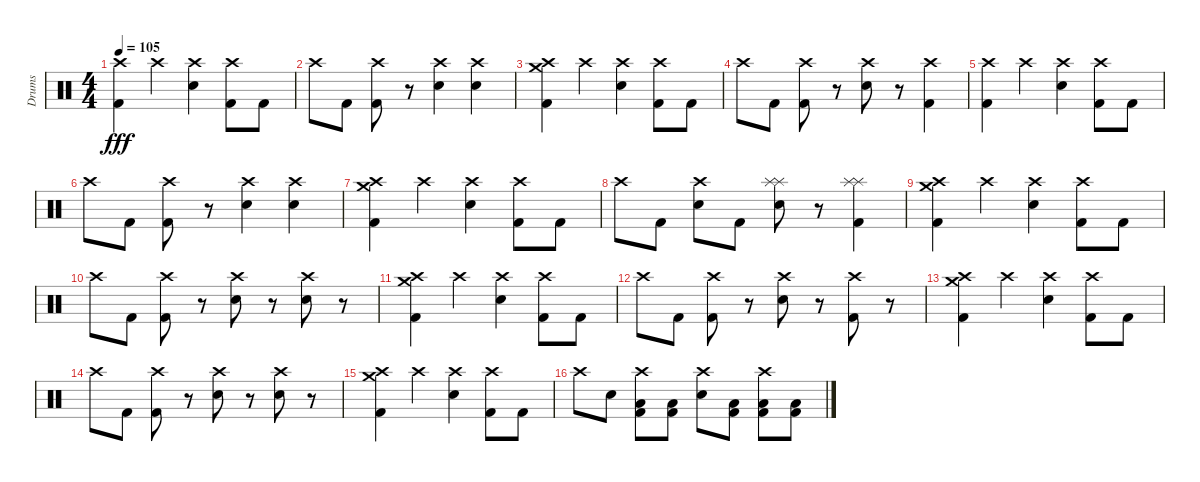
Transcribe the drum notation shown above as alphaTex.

\track ("Drums" "Drums") {instrument percussion}
\staff {score}
\articulation defaults
\ts (4 4)
\tempo 105
\clef neutral
\ks c
("Crash high (hit)" "Kick (hit) 2").4{dy fff} "Crash high (hit)".4 ("Crash high (hit)" "Electric Snare (hit)").4 ("Crash high (hit)" "Kick (hit) 2").8 "Kick (hit) 2".8 |
"Crash high (hit)".8 "Kick (hit) 2".8 ("Crash high (hit)" "Kick (hit) 2").8 r.8 ("Crash high (hit)" "Electric Snare (hit)").4 ("Crash high (hit)" "Electric Snare (hit)").4 |
("Crash high (hit)" "Crash medium (hit)" "Kick (hit) 2").4 "Crash high (hit)".4 ("Crash high (hit)" "Electric Snare (hit)").4 ("Crash high (hit)" "Kick (hit) 2").8 "Kick (hit) 2".8 |
"Crash high (hit)".8 "Kick (hit) 2".8 ("Crash high (hit)" "Kick (hit) 2").8 r.8 ("Crash high (hit)" "Electric Snare (hit)").8 r.8 ("Crash high (hit)" "Kick (hit) 2").4 |
("Crash high (hit)" "Kick (hit) 2").4 "Crash high (hit)".4 ("Crash high (hit)" "Electric Snare (hit)").4 ("Crash high (hit)" "Kick (hit) 2").8 "Kick (hit) 2".8 |
"Crash high (hit)".8 "Kick (hit) 2".8 ("Crash high (hit)" "Kick (hit) 2").8 r.8 ("Crash high (hit)" "Electric Snare (hit)").4 ("Crash high (hit)" "Electric Snare (hit)").4 |
("Crash high (hit)" "Crash medium (hit)" "Kick (hit) 2").4 "Crash high (hit)".4 ("Crash high (hit)" "Electric Snare (hit)").4 ("Crash high (hit)" "Kick (hit) 2").8 "Kick (hit) 2".8 |
"Crash high (hit)".8 "Kick (hit) 2".8 ("Crash high (hit)" "Electric Snare (hit)").8 "Kick (hit) 2".8 ("Splash (hit)" "Splash (hit)" "Electric Snare (hit)").8 r.8 ("Splash (hit)" "Splash (hit)" "Kick (hit) 2").4 |
("Crash medium (hit)" "Crash high (hit)" "Kick (hit) 2").4 "Crash high (hit)".4 ("Crash high (hit)" "Electric Snare (hit)").4 ("Crash high (hit)" "Kick (hit) 2").8 "Kick (hit) 2".8 |
"Crash high (hit)".8 "Kick (hit) 2".8 ("Crash high (hit)" "Kick (hit) 2").8 r.8 ("Crash high (hit)" "Electric Snare (hit)").8 r.8 ("Crash high (hit)" "Electric Snare (hit)").8 r.8 |
("Crash medium (hit)" "Crash high (hit)" "Kick (hit) 2").4 "Crash high (hit)".4 ("Crash high (hit)" "Electric Snare (hit)").4 ("Crash high (hit)" "Kick (hit) 2").8 "Kick (hit) 2".8 |
"Crash high (hit)".8 "Kick (hit) 2".8 ("Crash high (hit)" "Kick (hit) 2").8 r.8 ("Crash high (hit)" "Electric Snare (hit)").8 r.8 ("Crash high (hit)" "Kick (hit) 2").8 r.8 |
("Crash medium (hit)" "Crash high (hit)" "Kick (hit) 2").4 "Crash high (hit)".4 ("Crash high (hit)" "Electric Snare (hit)").4 ("Crash high (hit)" "Kick (hit) 2").8 "Kick (hit) 2".8 |
"Crash high (hit)".8 "Kick (hit) 2".8 ("Crash high (hit)" "Kick (hit) 2").8 r.8 ("Crash high (hit)" "Electric Snare (hit)").8 r.8 ("Crash high (hit)" "Electric Snare (hit)").8 r.8 |
("Crash medium (hit)" "Crash high (hit)" "Kick (hit) 2").4 "Crash high (hit)".4 ("Crash high (hit)" "Electric Snare (hit)").4 ("Crash high (hit)" "Kick (hit) 2").8 "Kick (hit) 2".8 |
"Crash high (hit)".8 "Electric Snare (hit)".8 ("Crash high (hit)" "Low Floor Tom (hit)" "Kick (hit) 2").8 ("Low Floor Tom (hit)" "Kick (hit) 2").8 ("Crash high (hit)" "Electric Snare (hit)").8 ("Low Floor Tom (hit)" "Kick (hit) 2").8 ("Crash high (hit)" "Low Floor Tom (hit)" "Kick (hit) 2").8 ("Low Floor Tom (hit)" "Kick (hit) 2").8
